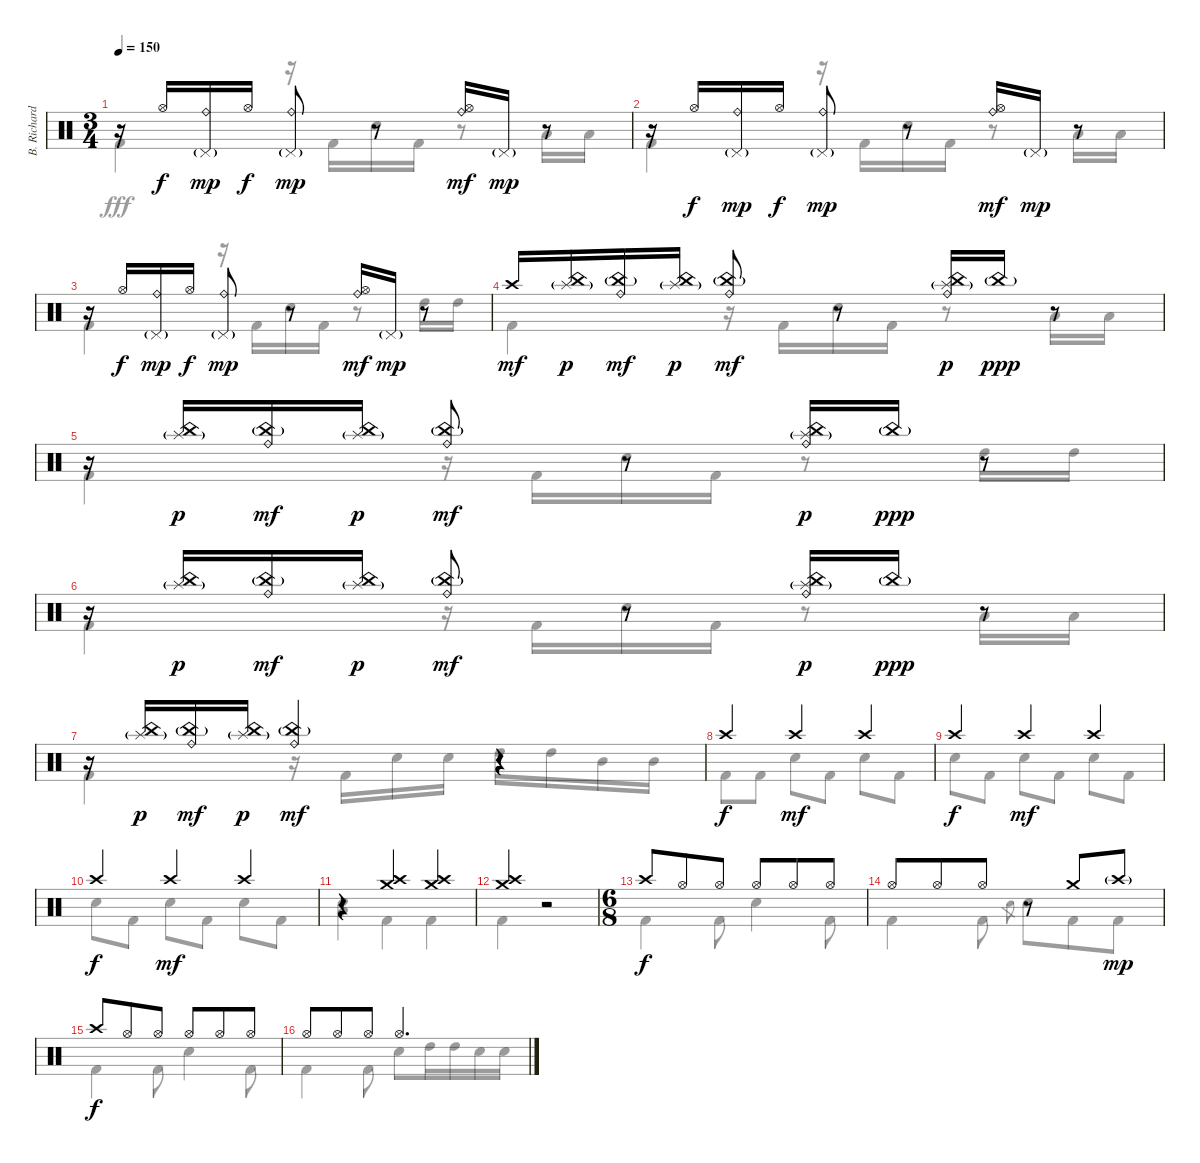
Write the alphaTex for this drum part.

\track ("B. Richardson Drums" "B. Richard") {instrument percussion}
\staff {score}
\articulation defaults
\voice
\ts (3 4)
\tempo 150
\clef neutral
\ks c
r.16{dy mp} "Hi-Hat (open)".16{dy f} ("Ride (bell)" "Pedal Hi-Hat (hit)"{g}).16{dy mp} "Hi-Hat (open)".16{dy f} ("Ride (bell)" "Pedal Hi-Hat (hit)"{g}).8{dy mp} r.8 ("Hi-Hat (open)" "Ride (bell)").16{dy mf} "Pedal Hi-Hat (hit)"{g}.16{dy mp} r.8 |
r.16 "Hi-Hat (open)".16{dy f} ("Ride (bell)" "Pedal Hi-Hat (hit)"{g}).16{dy mp} "Hi-Hat (open)".16{dy f} ("Ride (bell)" "Pedal Hi-Hat (hit)"{g}).8{dy mp} r.8 ("Hi-Hat (open)" "Ride (bell)").16{dy mf} "Pedal Hi-Hat (hit)"{g}.16{dy mp} r.8 |
r.16 "Hi-Hat (open)".16{dy f} ("Ride (bell)" "Pedal Hi-Hat (hit)"{g}).16{dy mp} "Hi-Hat (open)".16{dy f} ("Ride (bell)" "Pedal Hi-Hat (hit)"{g}).8{dy mp} r.8 ("Hi-Hat (open)" "Ride (bell)").16{dy mf} "Pedal Hi-Hat (hit)"{g}.16{dy mp} r.8 |
"Crash high (hit)".16{dy mf} ("China (hit)" "Splash (hit)"{g}).16{dy p} ("China (hit)"{g} "Ride (bell)").16{dy mf} ("China (hit)" "Splash (hit)"{g}).16{dy p} ("China (hit)"{g} "Ride (bell)").8{dy mf} r.8 ("China (hit)" "Ride (bell)" "Splash (hit)"{g}).16{dy p} "China (hit)"{g}.16{dy ppp} r.8 |
r.16 ("China (hit)" "Splash (hit)"{g}).16{dy p} ("China (hit)"{g} "Ride (bell)").16{dy mf} ("China (hit)" "Splash (hit)"{g}).16{dy p} ("China (hit)"{g} "Ride (bell)").8{dy mf} r.8 ("China (hit)" "Ride (bell)" "Splash (hit)"{g}).16{dy p} "China (hit)"{g}.16{dy ppp} r.8 |
r.16 ("China (hit)" "Splash (hit)"{g}).16{dy p} ("China (hit)"{g} "Ride (bell)").16{dy mf} ("China (hit)" "Splash (hit)"{g}).16{dy p} ("China (hit)"{g} "Ride (bell)").8{dy mf} r.8 ("China (hit)" "Ride (bell)" "Splash (hit)"{g}).16{dy p} "China (hit)"{g}.16{dy ppp} r.8 |
r.16 ("China (hit)" "Splash (hit)"{g}).16{dy p} ("China (hit)"{g} "Ride (bell)").16{dy mf} ("China (hit)" "Splash (hit)"{g}).16{dy p} ("China (hit)"{g} "Ride (bell)").4{dy mf} r.4 |
"Crash high (hit)".4{dy f} "Crash high (hit)".4{dy mf} "Crash high (hit)".4 |
"Crash high (hit)".4{dy f} "Crash high (hit)".4{dy mf} "Crash high (hit)".4 |
"Crash high (hit)".4{dy f} "Crash high (hit)".4{dy mf} "Crash high (hit)".4 |
r.4 ("Crash high (hit)" "Crash medium (hit)").4 ("Crash high (hit)" "Crash medium (hit)").4 |
("Crash high (hit)" "Crash medium (hit)").4 r.2 |
\ts (6 8)
"Crash high (hit)".8{dy f} "Hi-Hat (open)".8 "Hi-Hat (open)".8 "Hi-Hat (open)".8 "Hi-Hat (open)".8 "Hi-Hat (open)".8 |
"Hi-Hat (open)".8 "Hi-Hat (open)".8 "Hi-Hat (open)".8 r.8 "Crash medium (hit)".8 "Crash high (hit)"{g}.8{dy mp} |
"Crash high (hit)".8{dy f} "Hi-Hat (open)".8 "Hi-Hat (open)".8 "Hi-Hat (open)".8 "Hi-Hat (open)".8 "Hi-Hat (open)".8 |
"Hi-Hat (open)".8 "Hi-Hat (open)".8 "Hi-Hat (open)".8 "Hi-Hat (open)".4{d}
\voice
\clef neutral
\ottava regular
\simile none
\ks c "Kick (hit) 2".4{dy fff}
r.16 "Kick (hit) 2".16 "Electric Snare (hit)".16 "Kick (hit) 2".16 r.8 "Low Tom (hit)".16 "Low Tom (hit)".16 |
"Kick (hit) 2".4 r.16 "Kick (hit) 2".16 "Electric Snare (hit)".16 "Kick (hit) 2".16 r.8 "Low Tom (hit)".16 "Low Tom (hit)".16 |
"Kick (hit) 2".4 r.16 "Kick (hit) 2".16 "Electric Snare (hit)".16 "Kick (hit) 2".16 r.8 "High Tom (hit)".16 "High Tom (hit)".16 |
"Kick (hit) 2".4 r.16 "Kick (hit) 2".16 "Electric Snare (hit)".16 "Kick (hit) 2".16 r.8 "Low Tom (hit)".16 "Low Tom (hit)".16 |
"Kick (hit) 2".4 r.16 "Kick (hit) 2".16 "Electric Snare (hit)".16 "Kick (hit) 2".16 r.8 "High Tom (hit)".16 "High Tom (hit)".16 |
"Kick (hit) 2".4 r.16 "Kick (hit) 2".16 "Electric Snare (hit)".16 "Kick (hit) 2".16 r.8 "Low Tom (hit)".16 "Low Tom (hit)".16 |
"Kick (hit) 2".4 r.16 "Kick (hit) 2".16 "Electric Snare (hit)".16 "Electric Snare (hit)".16 "High Tom (hit)".16 "High Tom (hit)".16 "Mid Tom (hit)".16 "Mid Tom (hit)".16 |
"Kick (hit) 2".8 "Kick (hit) 2".8 "Electric Snare (hit)".8 "Kick (hit) 2".8 "Electric Snare (hit)".8 "Kick (hit) 2".8 |
"Electric Snare (hit)".8 "Kick (hit) 2".8 "Electric Snare (hit)".8 "Kick (hit) 2".8 "Electric Snare (hit)".8 "Kick (hit) 2".8 |
"Electric Snare (hit)".8 "Kick (hit) 2".8 "Electric Snare (hit)".8 "Kick (hit) 2".8 "Electric Snare (hit)".8 "Kick (hit) 2".8 |
("Electric Snare (hit)" "Low Tom (hit)").4 "Kick (hit) 2".4 "Kick (hit) 2".4 |
"Kick (hit) 2".4 r.2 |
"Kick (hit) 2".4 "Kick (hit) 2".8 "Electric Snare (hit)".4 "Kick (hit) 2".8 |
"Kick (hit) 2".4 "Kick (hit) 2".8 "Electric Snare (hit)".8{gr} "Electric Snare (hit)".8 "Kick (hit) 2".8 "Kick (hit) 2".8 |
"Kick (hit) 2".4 "Kick (hit) 2".8 "Electric Snare (hit)".4 "Kick (hit) 2".8 |
"Kick (hit) 2".4 "Kick (hit) 2".8 "Electric Snare (hit)".8 "High Tom (hit)".16 "High Tom (hit)".16 "Electric Snare (hit)".16 "Electric Snare (hit)".16
